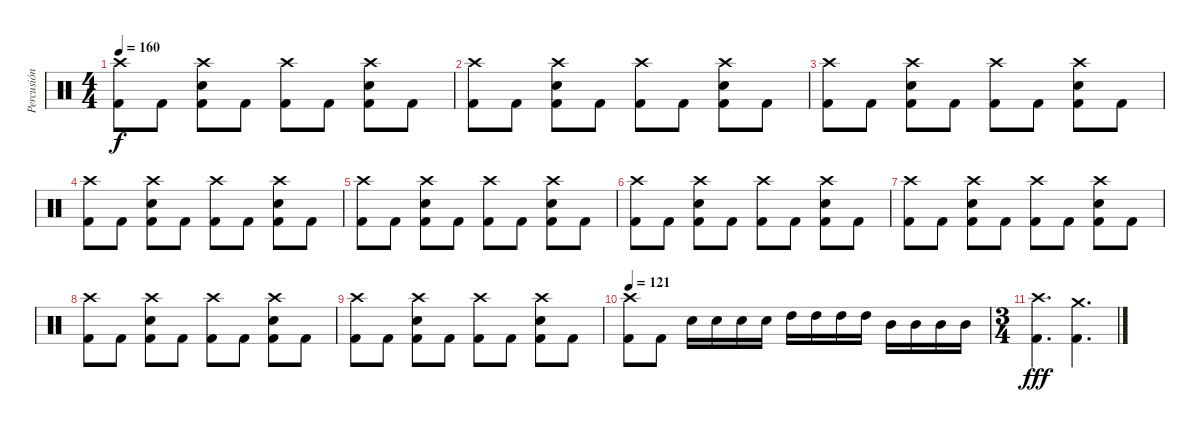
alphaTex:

\track ("Percusión" "Percusión") {instrument percussion}
\staff {score}
\articulation defaults
\ts (4 4)
\tempo 160
\clef neutral
\ks c
("Crash high (hit)" "Kick (hit) 2").8{dy f} "Kick (hit) 2".8 ("Crash high (hit)" "Electric Snare (hit)" "Kick (hit) 2").8 "Kick (hit) 2".8 ("Crash high (hit)" "Kick (hit) 2").8 "Kick (hit) 2".8 ("Crash high (hit)" "Electric Snare (hit)" "Kick (hit) 2").8 "Kick (hit) 2".8 |
("Crash high (hit)" "Kick (hit) 2").8 "Kick (hit) 2".8 ("Crash high (hit)" "Electric Snare (hit)" "Kick (hit) 2").8 "Kick (hit) 2".8 ("Crash high (hit)" "Kick (hit) 2").8 "Kick (hit) 2".8 ("Crash high (hit)" "Electric Snare (hit)" "Kick (hit) 2").8 "Kick (hit) 2".8 |
("Crash high (hit)" "Kick (hit) 2").8 "Kick (hit) 2".8 ("Crash high (hit)" "Electric Snare (hit)" "Kick (hit) 2").8 "Kick (hit) 2".8 ("Crash high (hit)" "Kick (hit) 2").8 "Kick (hit) 2".8 ("Crash high (hit)" "Electric Snare (hit)" "Kick (hit) 2").8 "Kick (hit) 2".8 |
("Crash high (hit)" "Kick (hit) 2").8 "Kick (hit) 2".8 ("Crash high (hit)" "Electric Snare (hit)" "Kick (hit) 2").8 "Kick (hit) 2".8 ("Crash high (hit)" "Kick (hit) 2").8 "Kick (hit) 2".8 ("Crash high (hit)" "Electric Snare (hit)" "Kick (hit) 2").8 "Kick (hit) 2".8 |
("Crash high (hit)" "Kick (hit) 2").8 "Kick (hit) 2".8 ("Crash high (hit)" "Electric Snare (hit)" "Kick (hit) 2").8 "Kick (hit) 2".8 ("Crash high (hit)" "Kick (hit) 2").8 "Kick (hit) 2".8 ("Crash high (hit)" "Electric Snare (hit)" "Kick (hit) 2").8 "Kick (hit) 2".8 |
("Crash high (hit)" "Kick (hit) 2").8 "Kick (hit) 2".8 ("Crash high (hit)" "Electric Snare (hit)" "Kick (hit) 2").8 "Kick (hit) 2".8 ("Crash high (hit)" "Kick (hit) 2").8 "Kick (hit) 2".8 ("Crash high (hit)" "Electric Snare (hit)" "Kick (hit) 2").8 "Kick (hit) 2".8 |
("Crash high (hit)" "Kick (hit) 2").8 "Kick (hit) 2".8 ("Crash high (hit)" "Electric Snare (hit)" "Kick (hit) 2").8 "Kick (hit) 2".8 ("Crash high (hit)" "Kick (hit) 2").8 "Kick (hit) 2".8 ("Crash high (hit)" "Electric Snare (hit)" "Kick (hit) 2").8 "Kick (hit) 2".8 |
("Crash high (hit)" "Kick (hit) 2").8 "Kick (hit) 2".8 ("Crash high (hit)" "Electric Snare (hit)" "Kick (hit) 2").8 "Kick (hit) 2".8 ("Crash high (hit)" "Kick (hit) 2").8 "Kick (hit) 2".8 ("Crash high (hit)" "Electric Snare (hit)" "Kick (hit) 2").8 "Kick (hit) 2".8 |
("Crash high (hit)" "Kick (hit) 2").8 "Kick (hit) 2".8 ("Crash high (hit)" "Electric Snare (hit)" "Kick (hit) 2").8 "Kick (hit) 2".8 ("Crash high (hit)" "Kick (hit) 2").8 "Kick (hit) 2".8 ("Crash high (hit)" "Electric Snare (hit)" "Kick (hit) 2").8 "Kick (hit) 2".8 |
\tempo 121
("Crash high (hit)" "Kick (hit) 2").8 "Kick (hit) 2".8 "Electric Snare (hit)".16 "Electric Snare (hit)".16 "Electric Snare (hit)".16 "Electric Snare (hit)".16 "High Tom (hit)".16 "High Tom (hit)".16 "High Tom (hit)".16 "High Tom (hit)".16 "Mid Tom (hit)".16 "Mid Tom (hit)".16 "Mid Tom (hit)".16 "Mid Tom (hit)".16 |
\ts (3 4)
("Crash high (hit)" "Kick (hit) 2").4{d dy fff} ("Crash medium (hit)" "Kick (hit) 2").4{d}
